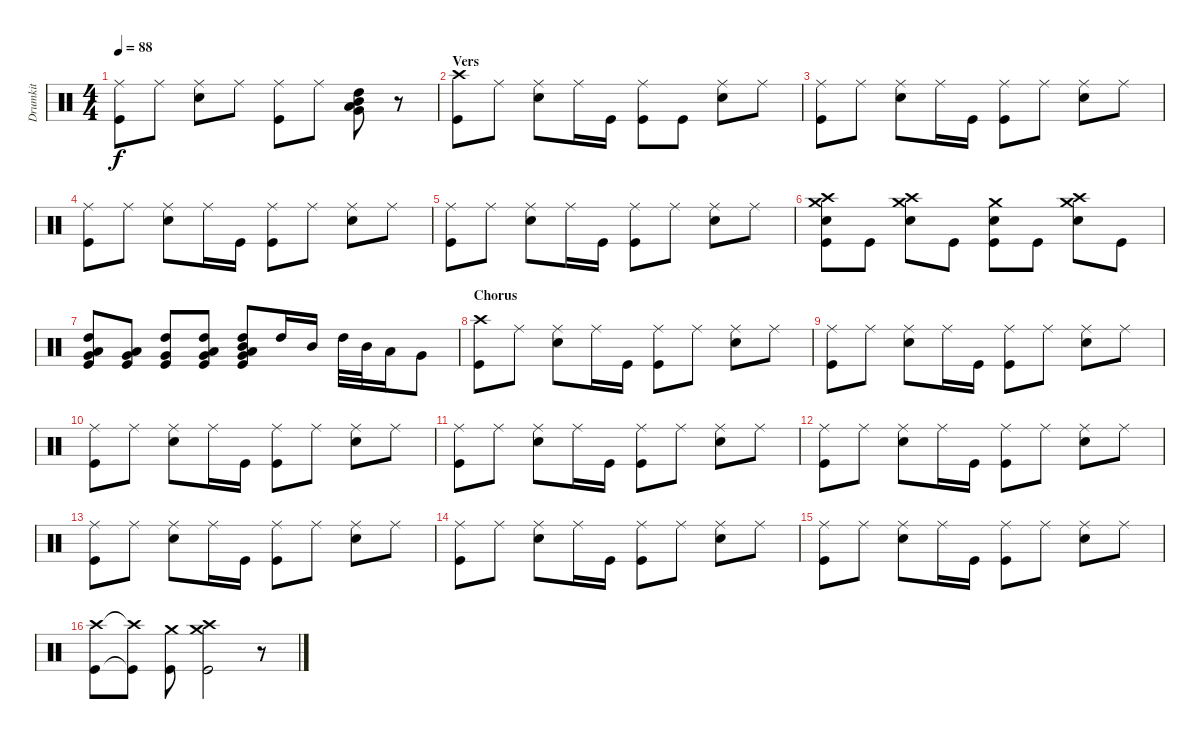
\track ("Drumkit" "Drumkit") {instrument percussion}
\staff {score}
\articulation defaults
\ts (4 4)
\tempo 88
\clef neutral
\ks c
("Ride (middle)" "Kick (hit)").8{dy f} "Ride (middle)".8 ("Ride (middle)" "Snare (hit) 2").8 "Ride (middle)".8 ("Ride (middle)" "Kick (hit)").8 "Ride (middle)".8 ("High Tom (hit)" "Very Low Tom (hit)" "Mid Tom (hit)" "Low Tom (hit)").8 r.8 |
\section ("" "Vers")
("Crash high (hit)" "Kick (hit)").8 "Ride (middle)".8 ("Ride (middle)" "Snare (hit) 2").8 "Ride (middle)".16 "Kick (hit)".16 ("Ride (middle)" "Kick (hit)").8 "Kick (hit)".8 ("Ride (middle)" "Snare (hit) 2").8 "Ride (middle)".8 |
("Ride (middle)" "Kick (hit)").8 "Ride (middle)".8 ("Ride (middle)" "Snare (hit) 2").8 "Ride (middle)".16 "Kick (hit)".16 ("Ride (middle)" "Kick (hit)").8 "Ride (middle)".8 ("Ride (middle)" "Snare (hit) 2").8 "Ride (middle)".8 |
("Ride (middle)" "Kick (hit)").8 "Ride (middle)".8 ("Ride (middle)" "Snare (hit) 2").8 "Ride (middle)".16 "Kick (hit)".16 ("Ride (middle)" "Kick (hit)").8 "Ride (middle)".8 ("Ride (middle)" "Snare (hit) 2").8 "Ride (middle)".8 |
("Ride (middle)" "Kick (hit)").8 "Ride (middle)".8 ("Ride (middle)" "Snare (hit) 2").8 "Ride (middle)".16 "Kick (hit)".16 ("Ride (middle)" "Kick (hit)").8 "Ride (middle)".8 ("Ride (middle)" "Snare (hit) 2").8 "Ride (middle)".8 |
("Crash medium (hit)" "Crash high (hit)" "Snare (hit) 2" "Kick (hit)").8 "Kick (hit)".8 ("Crash medium (hit)" "Crash high (hit)" "Snare (hit) 2").8 "Kick (hit)".8 ("Crash medium (hit)" "Snare (hit) 2" "Kick (hit)").8 "Kick (hit)".8 ("Crash medium (hit)" "Crash high (hit)" "Snare (hit) 2").8 "Kick (hit)".8 |
("High Tom (hit)" "Very Low Tom (hit)" "Low Tom (hit)" "Kick (hit)").8 ("Low Tom (hit)" "Very Low Tom (hit)" "Kick (hit)").8 ("High Tom (hit)" "Very Low Tom (hit)" "Kick (hit)").8 ("High Tom (hit)" "Very Low Tom (hit)" "Low Tom (hit)" "Kick (hit)").8 ("High Tom (hit)" "Mid Tom (hit)" "Low Tom (hit)" "Very Low Tom (hit)" "Kick (hit)").8 "High Tom (hit)".16 "Mid Tom (hit)".16 "High Tom (hit)".32 "Mid Tom (hit)".32 "Low Tom (hit)".16 "Very Low Tom (hit)".8 |
\section ("" "Chorus")
("Crash high (hit)" "Kick (hit)").8 "Ride (middle)".8 ("Ride (middle)" "Snare (hit) 2").8 "Ride (middle)".16 "Kick (hit)".16 ("Ride (middle)" "Kick (hit)").8 "Ride (middle)".8 ("Ride (middle)" "Snare (hit) 2").8 "Ride (middle)".8 |
("Ride (middle)" "Kick (hit)").8 "Ride (middle)".8 ("Ride (middle)" "Snare (hit) 2").8 "Ride (middle)".16 "Kick (hit)".16 ("Ride (middle)" "Kick (hit)").8 "Ride (middle)".8 ("Ride (middle)" "Snare (hit) 2").8 "Ride (middle)".8 |
("Ride (middle)" "Kick (hit)").8 "Ride (middle)".8 ("Ride (middle)" "Snare (hit) 2").8 "Ride (middle)".16 "Kick (hit)".16 ("Ride (middle)" "Kick (hit)").8 "Ride (middle)".8 ("Ride (middle)" "Snare (hit) 2").8 "Ride (middle)".8 |
("Ride (middle)" "Kick (hit)").8 "Ride (middle)".8 ("Ride (middle)" "Snare (hit) 2").8 "Ride (middle)".16 "Kick (hit)".16 ("Ride (middle)" "Kick (hit)").8 "Ride (middle)".8 ("Ride (middle)" "Snare (hit) 2").8 "Ride (middle)".8 |
("Ride (middle)" "Kick (hit)").8 "Ride (middle)".8 ("Ride (middle)" "Snare (hit) 2").8 "Ride (middle)".16 "Kick (hit)".16 ("Ride (middle)" "Kick (hit)").8 "Ride (middle)".8 ("Ride (middle)" "Snare (hit) 2").8 "Ride (middle)".8 |
("Ride (middle)" "Kick (hit)").8 "Ride (middle)".8 ("Ride (middle)" "Snare (hit) 2").8 "Ride (middle)".16 "Kick (hit)".16 ("Ride (middle)" "Kick (hit)").8 "Ride (middle)".8 ("Ride (middle)" "Snare (hit) 2").8 "Ride (middle)".8 |
("Ride (middle)" "Kick (hit)").8 "Ride (middle)".8 ("Ride (middle)" "Snare (hit) 2").8 "Ride (middle)".16 "Kick (hit)".16 ("Ride (middle)" "Kick (hit)").8 "Ride (middle)".8 ("Ride (middle)" "Snare (hit) 2").8 "Ride (middle)".8 |
("Ride (middle)" "Kick (hit)").8 "Ride (middle)".8 ("Ride (middle)" "Snare (hit) 2").8 "Ride (middle)".16 "Kick (hit)".16 ("Ride (middle)" "Kick (hit)").8 "Ride (middle)".8 ("Ride (middle)" "Snare (hit) 2").8 "Ride (middle)".8 |
("Crash high (hit)" "Kick (hit)").8 ("Crash high (hit)"{t} "Kick (hit)"{t}).8 ("Crash medium (hit)" "Kick (hit)").8 ("Crash medium (hit)" "Crash high (hit)" "Kick (hit)").2 r.8
